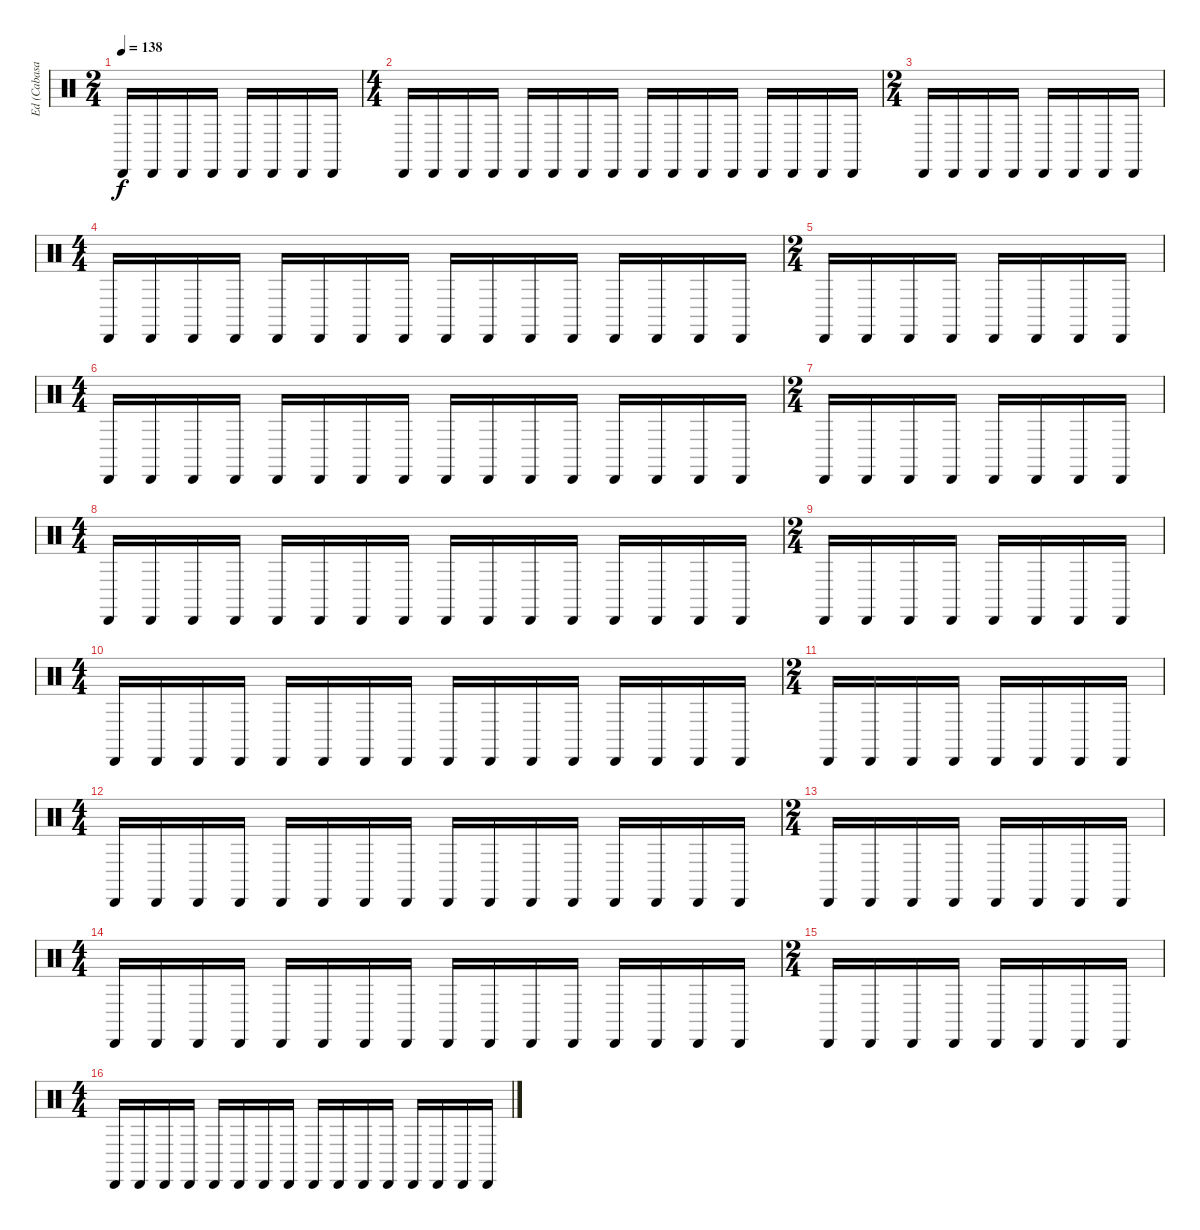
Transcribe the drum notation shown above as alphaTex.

\track ("Ed (Cabasa)" "Ed (Cabasa") {instrument percussion}
\staff {score}
\articulation defaults
\ts (2 4)
\tempo 138
\clef neutral
\ks c "Cabasa (hit)".16{dy f} "Cabasa (hit)".16 "Cabasa (hit)".16 "Cabasa (hit)".16 "Cabasa (hit)".16 "Cabasa (hit)".16 "Cabasa (hit)".16 "Cabasa (hit)".16
|
\ts (4 4)
"Cabasa (hit)".16 "Cabasa (hit)".16 "Cabasa (hit)".16 "Cabasa (hit)".16 "Cabasa (hit)".16 "Cabasa (hit)".16 "Cabasa (hit)".16 "Cabasa (hit)".16 "Cabasa (hit)".16 "Cabasa (hit)".16 "Cabasa (hit)".16 "Cabasa (hit)".16 "Cabasa (hit)".16 "Cabasa (hit)".16 "Cabasa (hit)".16 "Cabasa (hit)".16 |
\ts (2 4)
"Cabasa (hit)".16 "Cabasa (hit)".16 "Cabasa (hit)".16 "Cabasa (hit)".16 "Cabasa (hit)".16 "Cabasa (hit)".16 "Cabasa (hit)".16 "Cabasa (hit)".16 |
\ts (4 4)
"Cabasa (hit)".16 "Cabasa (hit)".16 "Cabasa (hit)".16 "Cabasa (hit)".16 "Cabasa (hit)".16 "Cabasa (hit)".16 "Cabasa (hit)".16 "Cabasa (hit)".16 "Cabasa (hit)".16 "Cabasa (hit)".16 "Cabasa (hit)".16 "Cabasa (hit)".16 "Cabasa (hit)".16 "Cabasa (hit)".16 "Cabasa (hit)".16 "Cabasa (hit)".16 |
\ts (2 4)
"Cabasa (hit)".16 "Cabasa (hit)".16 "Cabasa (hit)".16 "Cabasa (hit)".16 "Cabasa (hit)".16 "Cabasa (hit)".16 "Cabasa (hit)".16 "Cabasa (hit)".16 |
\ts (4 4)
"Cabasa (hit)".16 "Cabasa (hit)".16 "Cabasa (hit)".16 "Cabasa (hit)".16 "Cabasa (hit)".16 "Cabasa (hit)".16 "Cabasa (hit)".16 "Cabasa (hit)".16 "Cabasa (hit)".16 "Cabasa (hit)".16 "Cabasa (hit)".16 "Cabasa (hit)".16 "Cabasa (hit)".16 "Cabasa (hit)".16 "Cabasa (hit)".16 "Cabasa (hit)".16 |
\ts (2 4)
"Cabasa (hit)".16 "Cabasa (hit)".16 "Cabasa (hit)".16 "Cabasa (hit)".16 "Cabasa (hit)".16 "Cabasa (hit)".16 "Cabasa (hit)".16 "Cabasa (hit)".16 |
\ts (4 4)
"Cabasa (hit)".16 "Cabasa (hit)".16 "Cabasa (hit)".16 "Cabasa (hit)".16 "Cabasa (hit)".16 "Cabasa (hit)".16 "Cabasa (hit)".16 "Cabasa (hit)".16 "Cabasa (hit)".16 "Cabasa (hit)".16 "Cabasa (hit)".16 "Cabasa (hit)".16 "Cabasa (hit)".16 "Cabasa (hit)".16 "Cabasa (hit)".16 "Cabasa (hit)".16 |
\ts (2 4)
"Cabasa (hit)".16 "Cabasa (hit)".16 "Cabasa (hit)".16 "Cabasa (hit)".16 "Cabasa (hit)".16 "Cabasa (hit)".16 "Cabasa (hit)".16 "Cabasa (hit)".16 |
\ts (4 4)
"Cabasa (hit)".16 "Cabasa (hit)".16 "Cabasa (hit)".16 "Cabasa (hit)".16 "Cabasa (hit)".16 "Cabasa (hit)".16 "Cabasa (hit)".16 "Cabasa (hit)".16 "Cabasa (hit)".16 "Cabasa (hit)".16 "Cabasa (hit)".16 "Cabasa (hit)".16 "Cabasa (hit)".16 "Cabasa (hit)".16 "Cabasa (hit)".16 "Cabasa (hit)".16 |
\ts (2 4)
"Cabasa (hit)".16 "Cabasa (hit)".16 "Cabasa (hit)".16 "Cabasa (hit)".16 "Cabasa (hit)".16 "Cabasa (hit)".16 "Cabasa (hit)".16 "Cabasa (hit)".16 |
\ts (4 4)
"Cabasa (hit)".16 "Cabasa (hit)".16 "Cabasa (hit)".16 "Cabasa (hit)".16 "Cabasa (hit)".16 "Cabasa (hit)".16 "Cabasa (hit)".16 "Cabasa (hit)".16 "Cabasa (hit)".16 "Cabasa (hit)".16 "Cabasa (hit)".16 "Cabasa (hit)".16 "Cabasa (hit)".16 "Cabasa (hit)".16 "Cabasa (hit)".16 "Cabasa (hit)".16 |
\ts (2 4)
"Cabasa (hit)".16 "Cabasa (hit)".16 "Cabasa (hit)".16 "Cabasa (hit)".16 "Cabasa (hit)".16 "Cabasa (hit)".16 "Cabasa (hit)".16 "Cabasa (hit)".16 |
\ts (4 4)
"Cabasa (hit)".16 "Cabasa (hit)".16 "Cabasa (hit)".16 "Cabasa (hit)".16 "Cabasa (hit)".16 "Cabasa (hit)".16 "Cabasa (hit)".16 "Cabasa (hit)".16 "Cabasa (hit)".16 "Cabasa (hit)".16 "Cabasa (hit)".16 "Cabasa (hit)".16 "Cabasa (hit)".16 "Cabasa (hit)".16 "Cabasa (hit)".16 "Cabasa (hit)".16 |
\ts (2 4)
"Cabasa (hit)".16 "Cabasa (hit)".16 "Cabasa (hit)".16 "Cabasa (hit)".16 "Cabasa (hit)".16 "Cabasa (hit)".16 "Cabasa (hit)".16 "Cabasa (hit)".16 |
\ts (4 4)
"Cabasa (hit)".16 "Cabasa (hit)".16 "Cabasa (hit)".16 "Cabasa (hit)".16 "Cabasa (hit)".16 "Cabasa (hit)".16 "Cabasa (hit)".16 "Cabasa (hit)".16 "Cabasa (hit)".16 "Cabasa (hit)".16 "Cabasa (hit)".16 "Cabasa (hit)".16 "Cabasa (hit)".16 "Cabasa (hit)".16 "Cabasa (hit)".16 "Cabasa (hit)".16
